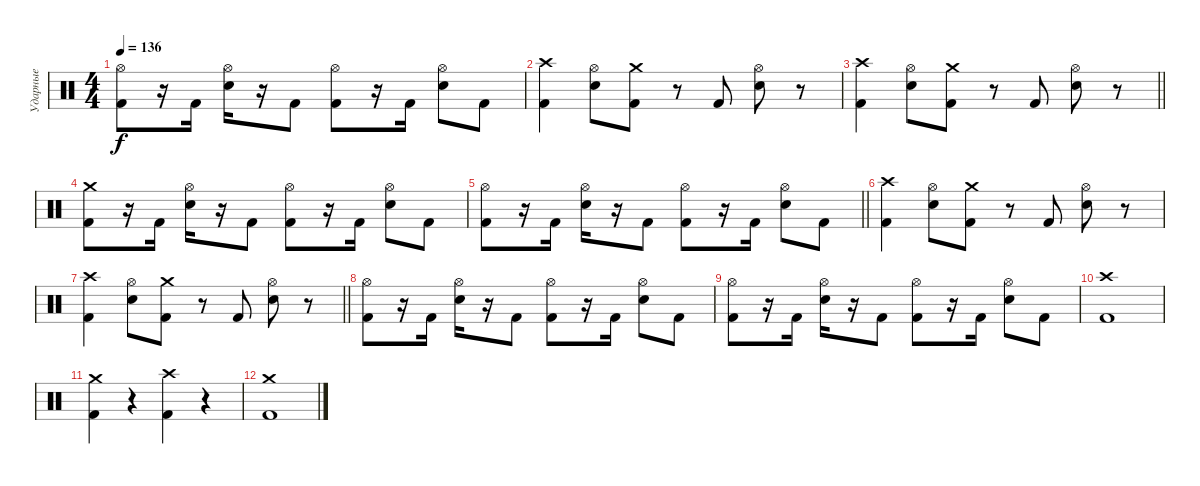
\track ("Ударные" "Ударные") {instrument percussion}
\staff {score}
\articulation defaults
\ts (4 4)
\tempo 136
\clef neutral
\ks c
("Hi-Hat (open)" "Kick (hit) 2").8{dy f} r.16 "Kick (hit) 2".16 ("Hi-Hat (open)" "Snare (hit) 2").16 r.16 "Kick (hit) 2".8 ("Hi-Hat (open)" "Kick (hit) 2").8 r.16 "Kick (hit) 2".16 ("Hi-Hat (open)" "Snare (hit) 2").8 "Kick (hit) 2".8 |
("Crash high (hit)" "Kick (hit) 2").4 ("Hi-Hat (open)" "Snare (hit) 2").8 ("Crash medium (hit)" "Kick (hit) 2").8 r.8 "Kick (hit) 2".8 ("Hi-Hat (open)" "Snare (hit) 2").8 r.8 |
\barLineRight lightlight
("Crash high (hit)" "Kick (hit) 2").4 ("Hi-Hat (open)" "Snare (hit) 2").8 ("Crash medium (hit)" "Kick (hit) 2").8 r.8 "Kick (hit) 2".8 ("Hi-Hat (open)" "Snare (hit) 2").8 r.8 |
("Crash medium (hit)" "Kick (hit) 2").8 r.16 "Kick (hit) 2".16 ("Hi-Hat (open)" "Snare (hit) 2").16 r.16 "Kick (hit) 2".8 ("Hi-Hat (open)" "Kick (hit) 2").8 r.16 "Kick (hit) 2".16 ("Hi-Hat (open)" "Snare (hit) 2").8 "Kick (hit) 2".8 |
\barLineRight lightlight
("Hi-Hat (open)" "Kick (hit) 2").8 r.16 "Kick (hit) 2".16 ("Hi-Hat (open)" "Snare (hit) 2").16 r.16 "Kick (hit) 2".8 ("Hi-Hat (open)" "Kick (hit) 2").8 r.16 "Kick (hit) 2".16 ("Hi-Hat (open)" "Snare (hit) 2").8 "Kick (hit) 2".8 |
("Crash high (hit)" "Kick (hit) 2").4 ("Hi-Hat (open)" "Snare (hit) 2").8 ("Crash medium (hit)" "Kick (hit) 2").8 r.8 "Kick (hit) 2".8 ("Hi-Hat (open)" "Snare (hit) 2").8 r.8 |
\barLineRight lightlight
("Crash high (hit)" "Kick (hit) 2").4 ("Hi-Hat (open)" "Snare (hit) 2").8 ("Crash medium (hit)" "Kick (hit) 2").8 r.8 "Kick (hit) 2".8 ("Hi-Hat (open)" "Snare (hit) 2").8 r.8 |
("Hi-Hat (open)" "Kick (hit) 2").8 r.16 "Kick (hit) 2".16 ("Hi-Hat (open)" "Snare (hit) 2").16 r.16 "Kick (hit) 2".8 ("Hi-Hat (open)" "Kick (hit) 2").8 r.16 "Kick (hit) 2".16 ("Hi-Hat (open)" "Snare (hit) 2").8 "Kick (hit) 2".8 |
("Hi-Hat (open)" "Kick (hit) 2").8 r.16 "Kick (hit) 2".16 ("Hi-Hat (open)" "Snare (hit) 2").16 r.16 "Kick (hit) 2".8 ("Hi-Hat (open)" "Kick (hit) 2").8 r.16 "Kick (hit) 2".16 ("Hi-Hat (open)" "Snare (hit) 2").8 "Kick (hit) 2".8 |
("Crash high (hit)" "Kick (hit) 2").1 |
("Crash medium (hit)" "Kick (hit) 2").4 r.4 ("Crash high (hit)" "Kick (hit) 2").4 r.4 |
("Crash medium (hit)" "Kick (hit) 2").1
